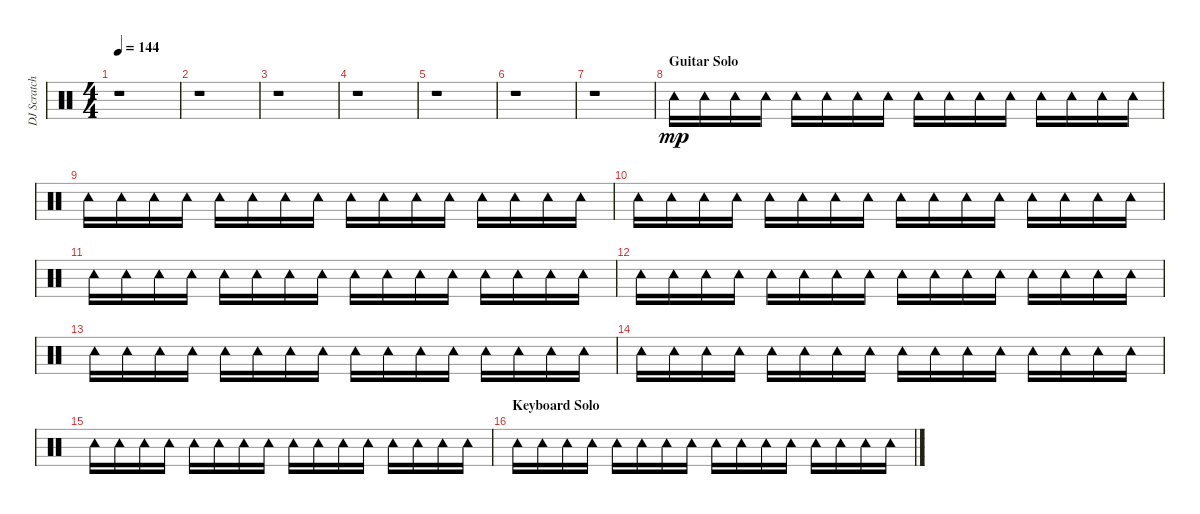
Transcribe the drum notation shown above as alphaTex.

\track ("DJ Scratches/ Percussion" "DJ Scratch") {instrument percussion}
\staff {score}
\articulation defaults
\ts (4 4)
\tempo 144
\clef neutral
\ks c
r.1{dy fff} |
r.1 |
r.1 |
r.1 |
r.1 |
r.1 |
r.1 |
\section ("" "Guitar Solo")
"Tambourine (hit)".16{dy mp} "Tambourine (hit)".16 "Tambourine (hit)".16 "Tambourine (hit)".16 "Tambourine (hit)".16 "Tambourine (hit)".16 "Tambourine (hit)".16 "Tambourine (hit)".16 "Tambourine (hit)".16 "Tambourine (hit)".16 "Tambourine (hit)".16 "Tambourine (hit)".16 "Tambourine (hit)".16 "Tambourine (hit)".16 "Tambourine (hit)".16 "Tambourine (hit)".16 |
"Tambourine (hit)".16 "Tambourine (hit)".16 "Tambourine (hit)".16 "Tambourine (hit)".16 "Tambourine (hit)".16 "Tambourine (hit)".16 "Tambourine (hit)".16 "Tambourine (hit)".16 "Tambourine (hit)".16 "Tambourine (hit)".16 "Tambourine (hit)".16 "Tambourine (hit)".16 "Tambourine (hit)".16 "Tambourine (hit)".16 "Tambourine (hit)".16 "Tambourine (hit)".16 |
"Tambourine (hit)".16 "Tambourine (hit)".16 "Tambourine (hit)".16 "Tambourine (hit)".16 "Tambourine (hit)".16 "Tambourine (hit)".16 "Tambourine (hit)".16 "Tambourine (hit)".16 "Tambourine (hit)".16 "Tambourine (hit)".16 "Tambourine (hit)".16 "Tambourine (hit)".16 "Tambourine (hit)".16 "Tambourine (hit)".16 "Tambourine (hit)".16 "Tambourine (hit)".16 |
"Tambourine (hit)".16 "Tambourine (hit)".16 "Tambourine (hit)".16 "Tambourine (hit)".16 "Tambourine (hit)".16 "Tambourine (hit)".16 "Tambourine (hit)".16 "Tambourine (hit)".16 "Tambourine (hit)".16 "Tambourine (hit)".16 "Tambourine (hit)".16 "Tambourine (hit)".16 "Tambourine (hit)".16 "Tambourine (hit)".16 "Tambourine (hit)".16 "Tambourine (hit)".16 |
"Tambourine (hit)".16 "Tambourine (hit)".16 "Tambourine (hit)".16 "Tambourine (hit)".16 "Tambourine (hit)".16 "Tambourine (hit)".16 "Tambourine (hit)".16 "Tambourine (hit)".16 "Tambourine (hit)".16 "Tambourine (hit)".16 "Tambourine (hit)".16 "Tambourine (hit)".16 "Tambourine (hit)".16 "Tambourine (hit)".16 "Tambourine (hit)".16 "Tambourine (hit)".16 |
"Tambourine (hit)".16 "Tambourine (hit)".16 "Tambourine (hit)".16 "Tambourine (hit)".16 "Tambourine (hit)".16 "Tambourine (hit)".16 "Tambourine (hit)".16 "Tambourine (hit)".16 "Tambourine (hit)".16 "Tambourine (hit)".16 "Tambourine (hit)".16 "Tambourine (hit)".16 "Tambourine (hit)".16 "Tambourine (hit)".16 "Tambourine (hit)".16 "Tambourine (hit)".16 |
"Tambourine (hit)".16 "Tambourine (hit)".16 "Tambourine (hit)".16 "Tambourine (hit)".16 "Tambourine (hit)".16 "Tambourine (hit)".16 "Tambourine (hit)".16 "Tambourine (hit)".16 "Tambourine (hit)".16 "Tambourine (hit)".16 "Tambourine (hit)".16 "Tambourine (hit)".16 "Tambourine (hit)".16 "Tambourine (hit)".16 "Tambourine (hit)".16 "Tambourine (hit)".16 |
"Tambourine (hit)".16 "Tambourine (hit)".16 "Tambourine (hit)".16 "Tambourine (hit)".16 "Tambourine (hit)".16 "Tambourine (hit)".16 "Tambourine (hit)".16 "Tambourine (hit)".16 "Tambourine (hit)".16 "Tambourine (hit)".16 "Tambourine (hit)".16 "Tambourine (hit)".16 "Tambourine (hit)".16 "Tambourine (hit)".16 "Tambourine (hit)".16 "Tambourine (hit)".16 |
\section ("" "Keyboard Solo")
"Tambourine (hit)".16 "Tambourine (hit)".16 "Tambourine (hit)".16 "Tambourine (hit)".16 "Tambourine (hit)".16 "Tambourine (hit)".16 "Tambourine (hit)".16 "Tambourine (hit)".16 "Tambourine (hit)".16 "Tambourine (hit)".16 "Tambourine (hit)".16 "Tambourine (hit)".16 "Tambourine (hit)".16 "Tambourine (hit)".16 "Tambourine (hit)".16 "Tambourine (hit)".16
